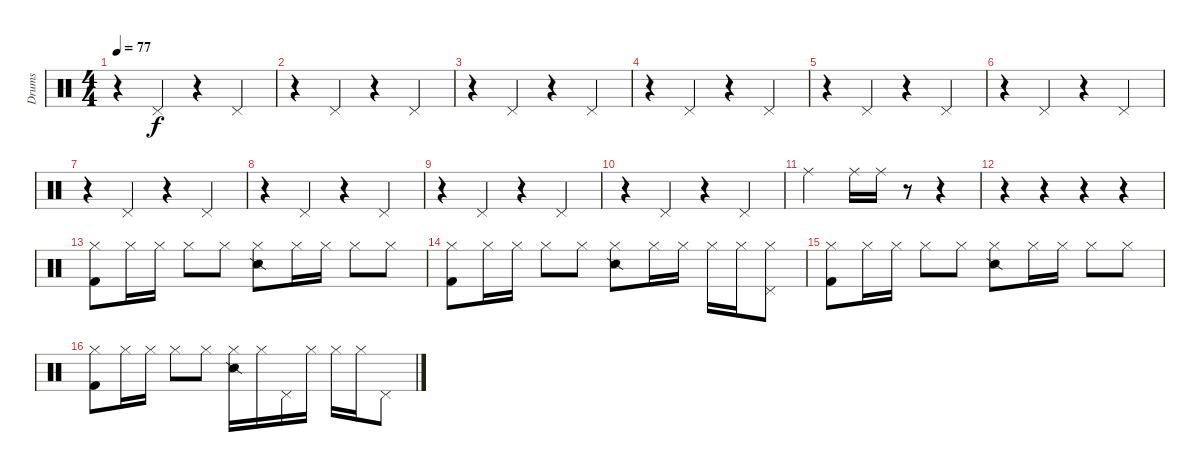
\track ("Drums" "Drums") {instrument percussion}
\staff {score}
\articulation defaults
\ts (4 4)
\tempo 77
\clef neutral
\ks c
r.4{dy f} "Pedal Hi-Hat (hit)".4 r.4 "Pedal Hi-Hat (hit)".4 |
r.4 "Pedal Hi-Hat (hit)".4 r.4 "Pedal Hi-Hat (hit)".4 |
r.4 "Pedal Hi-Hat (hit)".4 r.4 "Pedal Hi-Hat (hit)".4 |
r.4 "Pedal Hi-Hat (hit)".4 r.4 "Pedal Hi-Hat (hit)".4 |
r.4 "Pedal Hi-Hat (hit)".4 r.4 "Pedal Hi-Hat (hit)".4 |
r.4 "Pedal Hi-Hat (hit)".4 r.4 "Pedal Hi-Hat (hit)".4 |
r.4 "Pedal Hi-Hat (hit)".4 r.4 "Pedal Hi-Hat (hit)".4 |
r.4 "Pedal Hi-Hat (hit)".4 r.4 "Pedal Hi-Hat (hit)".4 |
r.4 "Pedal Hi-Hat (hit)".4 r.4 "Pedal Hi-Hat (hit)".4 |
r.4 "Pedal Hi-Hat (hit)".4 r.4 "Pedal Hi-Hat (hit)".4 |
"Ride (middle)".2 "Ride (middle)".16 "Ride (middle)".16 r.8 r.4 |
r.4 r.4 r.4 r.4 |
("Hi-Hat (closed)" "Kick (hit) 2").8 "Hi-Hat (closed)".16 "Hi-Hat (closed)".16 "Hi-Hat (closed)".8 "Hi-Hat (closed)".8 ("Hi-Hat (closed)" "Snare (side stick) 2").8 "Hi-Hat (closed)".16 "Hi-Hat (closed)".16 "Hi-Hat (closed)".8 "Hi-Hat (closed)".8 |
("Hi-Hat (closed)" "Kick (hit) 2").8 "Hi-Hat (closed)".16 "Hi-Hat (closed)".16 "Hi-Hat (closed)".8 "Hi-Hat (closed)".8 ("Hi-Hat (closed)" "Snare (side stick) 2").8 "Hi-Hat (closed)".16 "Hi-Hat (closed)".16 "Hi-Hat (closed)".16 "Hi-Hat (closed)".16 ("Pedal Hi-Hat (hit)" "Hi-Hat (closed)").8 |
("Hi-Hat (closed)" "Kick (hit) 2").8 "Hi-Hat (closed)".16 "Hi-Hat (closed)".16 "Hi-Hat (closed)".8 "Hi-Hat (closed)".8 ("Hi-Hat (closed)" "Snare (side stick) 2").8 "Hi-Hat (closed)".16 "Hi-Hat (closed)".16 "Hi-Hat (closed)".8 "Hi-Hat (closed)".8 |
("Hi-Hat (closed)" "Kick (hit) 2").8 "Hi-Hat (closed)".16 "Hi-Hat (closed)".16 "Hi-Hat (closed)".8 "Hi-Hat (closed)".8 ("Hi-Hat (closed)" "Snare (side stick) 2").16 "Hi-Hat (closed)".16 "Pedal Hi-Hat (hit)".16 "Hi-Hat (closed)".16 "Hi-Hat (closed)".16 "Hi-Hat (closed)".16 "Pedal Hi-Hat (hit)".8
